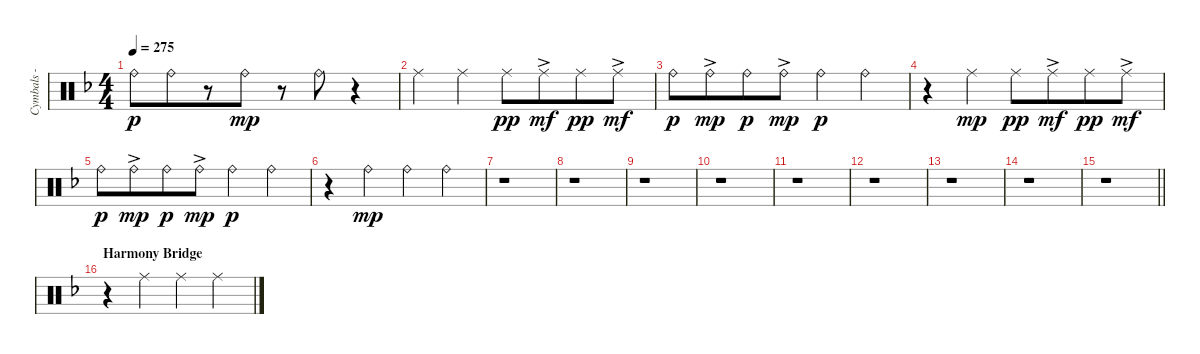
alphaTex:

\track ("Cymbals - ride" "Cymbals - ") {instrument percussion}
\staff {score}
\articulation defaults
\ts (4 4)
\tempo 275
\clef neutral
\ks dminor "Ride (bell)".8{dy p} "Ride (bell)".8{beam merge}
r.8 "Ride (bell)".8{dy mp} r.8 "Ride (bell)".8 r.4 |
"Ride (middle)".4 "Ride (middle)".4 "Ride (middle)".8{dy pp} "Ride (middle)"{ac}.8{dy mf beam merge} "Ride (middle)".8{dy pp} "Ride (middle)"{ac}.8{dy mf} |
"Ride (bell)".8{dy p} "Ride (bell)"{ac}.8{dy mp beam merge} "Ride (bell)".8{dy p} "Ride (bell)"{ac}.8{dy mp} "Ride (bell)".4{dy p} "Ride (bell)".4 |
r.4 "Ride (middle)".4{dy mp} "Ride (middle)".8{dy pp} "Ride (middle)"{ac}.8{dy mf beam merge} "Ride (middle)".8{dy pp} "Ride (middle)"{ac}.8{dy mf} |
"Ride (bell)".8{dy p} "Ride (bell)"{ac}.8{dy mp beam merge} "Ride (bell)".8{dy p} "Ride (bell)"{ac}.8{dy mp} "Ride (bell)".4{dy p} "Ride (bell)".4 |
r.4 "Ride (bell)".4{dy mp} "Ride (bell)".4 "Ride (bell)".4 |
r.1 |
r.1 |
r.1 |
r.1 |
r.1 |
r.1 |
r.1 |
r.1 |
\barLineRight lightlight
r.1 |
\section ("" "Harmony Bridge")
r.4{volume 6} "Ride (middle)".4 "Ride (middle)".4 "Ride (middle)".4
